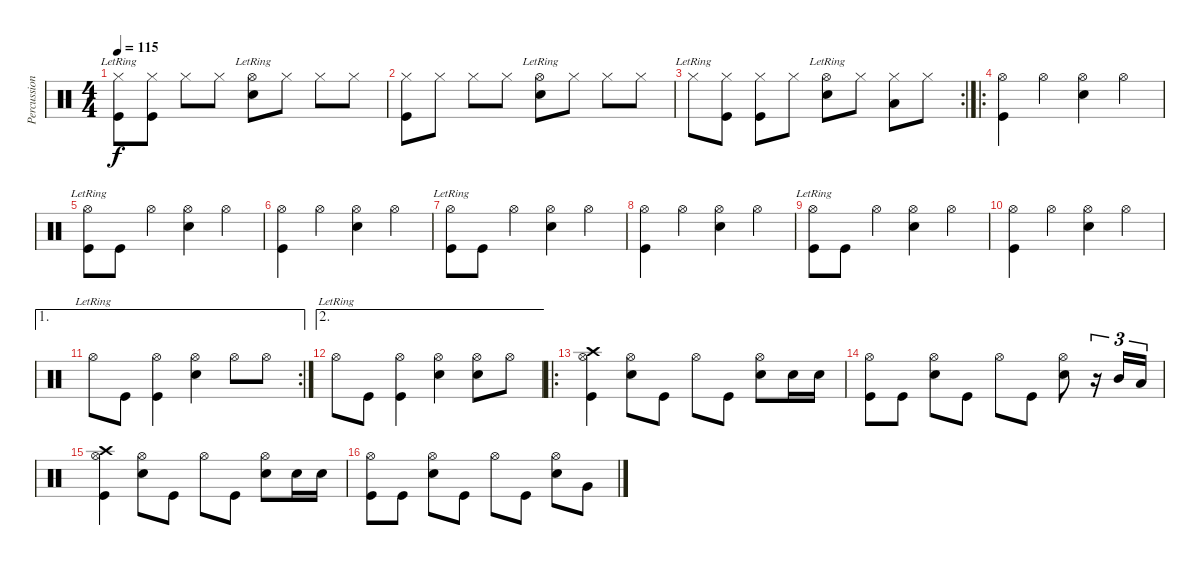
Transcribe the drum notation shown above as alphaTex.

\track ("Percussion" "Percussion") {instrument percussion}
\staff {score}
\articulation defaults
\ts (4 4)
\tempo 115
\clef neutral
\ks c
("Hi-Hat (closed)"{lr} "Kick (hit)").8{dy f} ("Hi-Hat (closed)" "Kick (hit)").8 "Hi-Hat (closed)".8 "Hi-Hat (closed)".8 ("Hi-Hat (open)"{lr} "Snare (hit) 2").8 "Hi-Hat (closed)".8 "Hi-Hat (closed)".8 "Hi-Hat (closed)".8 |
("Hi-Hat (closed)" "Kick (hit)").8 "Hi-Hat (closed)".8 "Hi-Hat (closed)".8 "Hi-Hat (closed)".8 ("Hi-Hat (open)"{lr} "Snare (hit) 2").8 "Hi-Hat (closed)".8 "Hi-Hat (closed)".8 "Hi-Hat (closed)".8 |
\rc 2 "Hi-Hat (closed)"{lr}.8
("Hi-Hat (closed)" "Kick (hit)").8 ("Hi-Hat (closed)" "Kick (hit)").8 "Hi-Hat (closed)".8 ("Hi-Hat (open)"{lr} "Snare (hit) 2").8 "Hi-Hat (closed)".8 ("Hi-Hat (closed)" "Low Tom (hit)").8 "Hi-Hat (closed)".8 |
\ro
("Hi-Hat (open)" "Kick (hit)").4 "Hi-Hat (open)".4 ("Hi-Hat (open)" "Snare (hit) 2").4 "Hi-Hat (open)".4 |
("Hi-Hat (open)"{lr} "Kick (hit)").8 "Kick (hit)".8 "Hi-Hat (open)".4 ("Hi-Hat (open)" "Snare (hit) 2").4 "Hi-Hat (open)".4 |
("Hi-Hat (open)" "Kick (hit)").4 "Hi-Hat (open)".4 ("Hi-Hat (open)" "Snare (hit) 2").4 "Hi-Hat (open)".4 |
("Hi-Hat (open)"{lr} "Kick (hit)").8 "Kick (hit)".8 "Hi-Hat (open)".4 ("Hi-Hat (open)" "Snare (hit) 2").4 "Hi-Hat (open)".4 |
("Hi-Hat (open)" "Kick (hit)").4 "Hi-Hat (open)".4 ("Hi-Hat (open)" "Snare (hit) 2").4 "Hi-Hat (open)".4 |
("Hi-Hat (open)"{lr} "Kick (hit)").8 "Kick (hit)".8 "Hi-Hat (open)".4 ("Hi-Hat (open)" "Snare (hit) 2").4 "Hi-Hat (open)".4 |
("Hi-Hat (open)" "Kick (hit)").4 "Hi-Hat (open)".4 ("Hi-Hat (open)" "Snare (hit) 2").4 "Hi-Hat (open)".4 |
\ae 1
\rc 2 "Hi-Hat (open)"{lr}.8 "Kick (hit)".8
("Hi-Hat (open)" "Kick (hit)").4 ("Hi-Hat (open)" "Snare (hit) 2").4 "Hi-Hat (open)".8 "Hi-Hat (open)".8 |
\ae 2 "Hi-Hat (open)"{lr}.8 "Kick (hit)".8
("Hi-Hat (open)" "Kick (hit)").4 ("Hi-Hat (open)" "Snare (hit) 2").4 ("Hi-Hat (open)" "Snare (hit) 2").8 "Hi-Hat (open)".8 |
\ro
("Hi-Hat (open)" "Crash high (hit)" "Kick (hit)").4 ("Hi-Hat (open)" "Snare (hit) 2").8 "Kick (hit)".8 "Hi-Hat (open)".8 "Kick (hit)".8 ("Hi-Hat (open)" "Snare (hit) 2").8 "Snare (hit) 2".16 "Snare (hit) 2".16 |
("Hi-Hat (open)" "Kick (hit)").8 "Kick (hit)".8 ("Hi-Hat (open)" "Snare (hit) 2").8 "Kick (hit)".8 "Hi-Hat (open)".8 "Kick (hit)".8 ("Hi-Hat (open)" "Snare (hit) 2").8 r.16{tu (3 2)} "Mid Tom (hit)".16{tu (3 2)} "Low Tom (hit)".16{tu (3 2)} |
("Hi-Hat (open)" "Crash high (hit)" "Kick (hit)").4 ("Hi-Hat (open)" "Snare (hit) 2").8 "Kick (hit)".8 "Hi-Hat (open)".8 "Kick (hit)".8 ("Hi-Hat (open)" "Snare (hit) 2").8 "Snare (hit) 2".16 "Snare (hit) 2".16 |
("Hi-Hat (open)" "Kick (hit)").8 "Kick (hit)".8 ("Hi-Hat (open)" "Snare (hit) 2").8 "Kick (hit)".8 "Hi-Hat (open)".8 "Kick (hit)".8 ("Hi-Hat (open)" "Snare (hit) 2").8 "Very Low Tom (hit)".8
